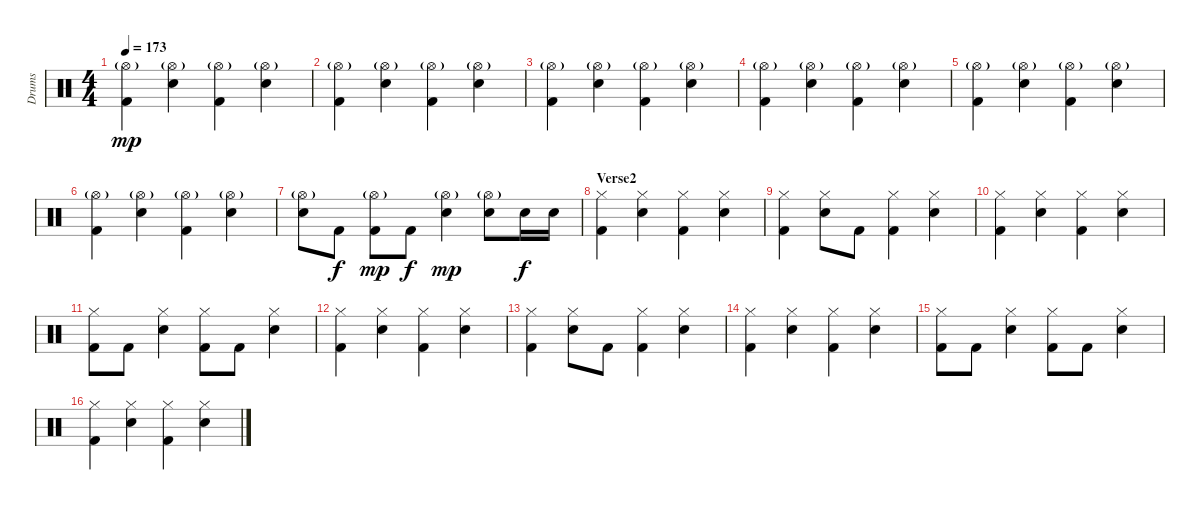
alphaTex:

\track ("Drums" "Drums") {instrument percussion}
\staff {score}
\articulation defaults
\ts (4 4)
\tempo 173
\clef neutral
\ks c
("Hi-Hat (open)"{g} "Kick (hit) 2").4{dy mp} ("Hi-Hat (open)"{g} "Snare (hit) 2").4 ("Hi-Hat (open)"{g} "Kick (hit) 2").4 ("Hi-Hat (open)"{g} "Snare (hit) 2").4 |
("Hi-Hat (open)"{g} "Kick (hit) 2").4 ("Hi-Hat (open)"{g} "Snare (hit) 2").4 ("Hi-Hat (open)"{g} "Kick (hit) 2").4 ("Hi-Hat (open)"{g} "Snare (hit) 2").4 |
("Hi-Hat (open)"{g} "Kick (hit) 2").4 ("Hi-Hat (open)"{g} "Snare (hit) 2").4 ("Hi-Hat (open)"{g} "Kick (hit) 2").4 ("Hi-Hat (open)"{g} "Snare (hit) 2").4 |
("Hi-Hat (open)"{g} "Kick (hit) 2").4 ("Hi-Hat (open)"{g} "Snare (hit) 2").4 ("Hi-Hat (open)"{g} "Kick (hit) 2").4 ("Hi-Hat (open)"{g} "Snare (hit) 2").4 |
("Hi-Hat (open)"{g} "Kick (hit) 2").4 ("Hi-Hat (open)"{g} "Snare (hit) 2").4 ("Hi-Hat (open)"{g} "Kick (hit) 2").4 ("Hi-Hat (open)"{g} "Snare (hit) 2").4 |
("Hi-Hat (open)"{g} "Kick (hit) 2").4 ("Hi-Hat (open)"{g} "Snare (hit) 2").4 ("Hi-Hat (open)"{g} "Kick (hit) 2").4 ("Hi-Hat (open)"{g} "Snare (hit) 2").4 |
("Hi-Hat (open)"{g} "Snare (hit) 2").8 "Kick (hit) 2".8{dy f} ("Hi-Hat (open)"{g} "Kick (hit) 2").8{dy mp} "Kick (hit) 2".8{dy f} ("Hi-Hat (open)"{g} "Snare (hit) 2").4{dy mp} ("Hi-Hat (open)"{g} "Snare (hit) 2").8 "Snare (hit) 2".16{dy f} "Snare (hit) 2".16 |
\section ("" "Verse2")
("Hi-Hat (closed)" "Kick (hit) 2").4 ("Hi-Hat (closed)" "Snare (hit) 2").4 ("Hi-Hat (closed)" "Kick (hit) 2").4 ("Hi-Hat (closed)" "Snare (hit) 2").4 |
("Hi-Hat (closed)" "Kick (hit) 2").4 ("Hi-Hat (closed)" "Snare (hit) 2").8 "Kick (hit) 2".8 ("Hi-Hat (closed)" "Kick (hit) 2").4 ("Hi-Hat (closed)" "Snare (hit) 2").4 |
("Hi-Hat (closed)" "Kick (hit) 2").4 ("Hi-Hat (closed)" "Snare (hit) 2").4 ("Hi-Hat (closed)" "Kick (hit) 2").4 ("Hi-Hat (closed)" "Snare (hit) 2").4 |
("Hi-Hat (closed)" "Kick (hit) 2").8 "Kick (hit) 2".8 ("Hi-Hat (closed)" "Snare (hit) 2").4 ("Hi-Hat (closed)" "Kick (hit) 2").8 "Kick (hit) 2".8 ("Hi-Hat (closed)" "Snare (hit) 2").4 |
("Hi-Hat (closed)" "Kick (hit) 2").4 ("Hi-Hat (closed)" "Snare (hit) 2").4 ("Hi-Hat (closed)" "Kick (hit) 2").4 ("Hi-Hat (closed)" "Snare (hit) 2").4 |
("Hi-Hat (closed)" "Kick (hit) 2").4 ("Hi-Hat (closed)" "Snare (hit) 2").8 "Kick (hit) 2".8 ("Hi-Hat (closed)" "Kick (hit) 2").4 ("Hi-Hat (closed)" "Snare (hit) 2").4 |
("Hi-Hat (closed)" "Kick (hit) 2").4 ("Hi-Hat (closed)" "Snare (hit) 2").4 ("Hi-Hat (closed)" "Kick (hit) 2").4 ("Hi-Hat (closed)" "Snare (hit) 2").4 |
("Hi-Hat (closed)" "Kick (hit) 2").8 "Kick (hit) 2".8 ("Hi-Hat (closed)" "Snare (hit) 2").4 ("Hi-Hat (closed)" "Kick (hit) 2").8 "Kick (hit) 2".8 ("Hi-Hat (closed)" "Snare (hit) 2").4 |
("Hi-Hat (closed)" "Kick (hit) 2").4 ("Hi-Hat (closed)" "Snare (hit) 2").4 ("Hi-Hat (closed)" "Kick (hit) 2").4 ("Hi-Hat (closed)" "Snare (hit) 2").4
